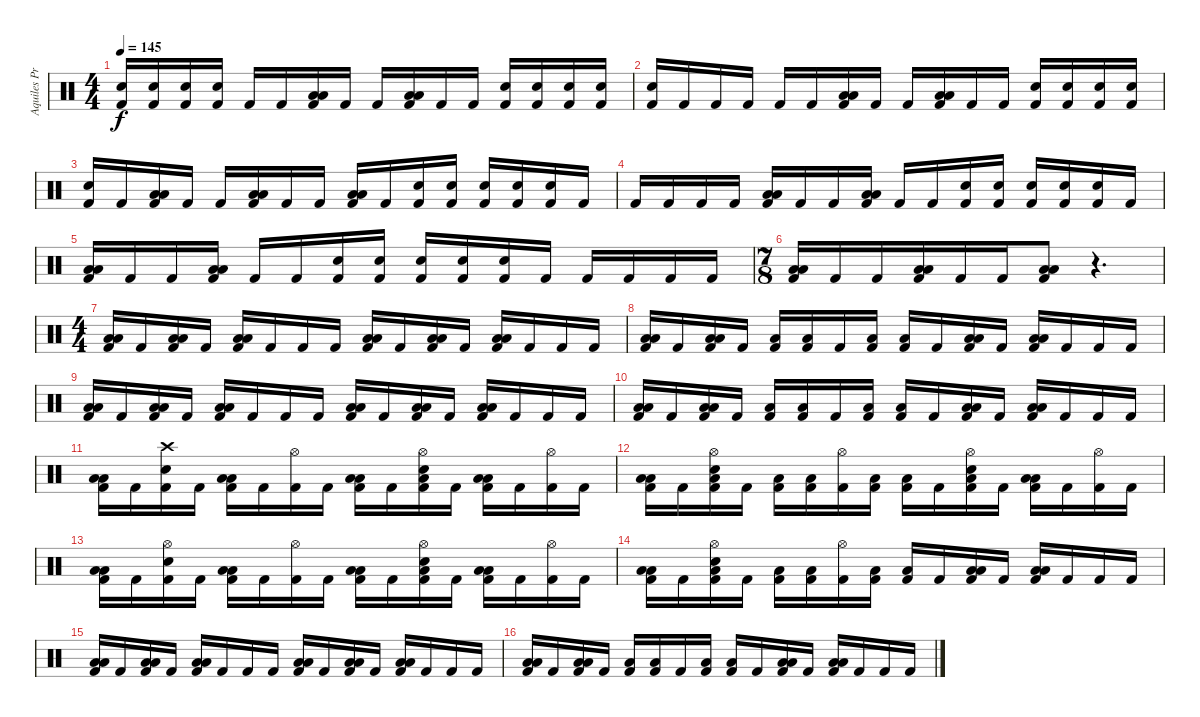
\track ("Aquiles Priester" "Aquiles Pr") {instrument percussion}
\staff {score}
\articulation defaults
\ts (4 4)
\tempo 145
\clef neutral
\ks c
("Electric Snare (hit)" "Kick (hit) 2").16{dy f} ("Electric Snare (hit)" "Kick (hit) 2").16 ("Electric Snare (hit)" "Kick (hit) 2").16 ("Electric Snare (hit)" "Kick (hit) 2").16 "Kick (hit) 2".16 "Kick (hit) 2".16 ("Low Tom (hit)" "Low Floor Tom (hit)" "Kick (hit) 2").16 "Kick (hit) 2".16 "Kick (hit) 2".16 ("Low Tom (hit)" "Low Floor Tom (hit)" "Kick (hit) 2").16 "Kick (hit) 2".16 "Kick (hit) 2".16 ("Electric Snare (hit)" "Kick (hit) 2").16 ("Electric Snare (hit)" "Kick (hit) 2").16 ("Electric Snare (hit)" "Kick (hit) 2").16 ("Electric Snare (hit)" "Kick (hit) 2").16 |
("Electric Snare (hit)" "Kick (hit) 2").16 "Kick (hit) 2".16 "Kick (hit) 2".16 "Kick (hit) 2".16 "Kick (hit) 2".16 "Kick (hit) 2".16 ("Low Tom (hit)" "Low Floor Tom (hit)" "Kick (hit) 2").16 "Kick (hit) 2".16 "Kick (hit) 2".16 ("Low Tom (hit)" "Low Floor Tom (hit)" "Kick (hit) 2").16 "Kick (hit) 2".16 "Kick (hit) 2".16 ("Electric Snare (hit)" "Kick (hit) 2").16 ("Electric Snare (hit)" "Kick (hit) 2").16 ("Electric Snare (hit)" "Kick (hit) 2").16 ("Electric Snare (hit)" "Kick (hit) 2").16 |
("Electric Snare (hit)" "Kick (hit) 2").16 "Kick (hit) 2".16 ("Low Tom (hit)" "Low Floor Tom (hit)" "Kick (hit) 2").16 "Kick (hit) 2".16 "Kick (hit) 2".16 ("Low Tom (hit)" "Low Floor Tom (hit)" "Kick (hit) 2").16 "Kick (hit) 2".16 "Kick (hit) 2".16 ("Low Tom (hit)" "Low Floor Tom (hit)" "Kick (hit) 2").16 "Kick (hit) 2".16 ("Electric Snare (hit)" "Kick (hit) 2").16 ("Electric Snare (hit)" "Kick (hit) 2").16 ("Electric Snare (hit)" "Kick (hit) 2").16 ("Electric Snare (hit)" "Kick (hit) 2").16 ("Electric Snare (hit)" "Kick (hit) 2").16 "Kick (hit) 2".16 |
"Kick (hit) 2".16 "Kick (hit) 2".16 "Kick (hit) 2".16 "Kick (hit) 2".16 ("Low Tom (hit)" "Low Floor Tom (hit)" "Kick (hit) 2").16 "Kick (hit) 2".16 "Kick (hit) 2".16 ("Low Tom (hit)" "Low Floor Tom (hit)" "Kick (hit) 2").16 "Kick (hit) 2".16 "Kick (hit) 2".16 ("Electric Snare (hit)" "Kick (hit) 2").16 ("Electric Snare (hit)" "Kick (hit) 2").16 ("Electric Snare (hit)" "Kick (hit) 2").16 ("Electric Snare (hit)" "Kick (hit) 2").16 ("Electric Snare (hit)" "Kick (hit) 2").16 "Kick (hit) 2".16 |
("Low Tom (hit)" "Low Floor Tom (hit)" "Kick (hit) 2").16 "Kick (hit) 2".16 "Kick (hit) 2".16 ("Low Tom (hit)" "Low Floor Tom (hit)" "Kick (hit) 2").16 "Kick (hit) 2".16 "Kick (hit) 2".16 ("Electric Snare (hit)" "Kick (hit) 2").16 ("Electric Snare (hit)" "Kick (hit) 2").16 ("Electric Snare (hit)" "Kick (hit) 2").16 ("Electric Snare (hit)" "Kick (hit) 2").16 ("Electric Snare (hit)" "Kick (hit) 2").16 "Kick (hit) 2".16 "Kick (hit) 2".16 "Kick (hit) 2".16 "Kick (hit) 2".16 "Kick (hit) 2".16 |
\ts (7 8)
("Low Tom (hit)" "Low Floor Tom (hit)" "Kick (hit) 2").16 "Kick (hit) 2".16 "Kick (hit) 2".16 ("Low Tom (hit)" "Low Floor Tom (hit)" "Kick (hit) 2").16 "Kick (hit) 2".16 "Kick (hit) 2".16 ("Low Tom (hit)" "Low Floor Tom (hit)" "Kick (hit) 2").8 r.4{d} |
\ts (4 4)
("Low Tom (hit)" "Low Floor Tom (hit)" "Kick (hit) 2").16 "Kick (hit) 2".16 ("Low Tom (hit)" "Low Floor Tom (hit)" "Kick (hit) 2").16 "Kick (hit) 2".16 ("Low Tom (hit)" "Low Floor Tom (hit)" "Kick (hit) 2").16 "Kick (hit) 2".16 "Kick (hit) 2".16 "Kick (hit) 2".16 ("Low Tom (hit)" "Low Floor Tom (hit)" "Kick (hit) 2").16 "Kick (hit) 2".16 ("Low Tom (hit)" "Low Floor Tom (hit)" "Kick (hit) 2").16 "Kick (hit) 2".16 ("Low Tom (hit)" "Low Floor Tom (hit)" "Kick (hit) 2").16 "Kick (hit) 2".16 "Kick (hit) 2".16 "Kick (hit) 2".16 |
("Low Tom (hit)" "Low Floor Tom (hit)" "Kick (hit) 2").16 "Kick (hit) 2".16 ("Low Tom (hit)" "Low Floor Tom (hit)" "Kick (hit) 2").16 "Kick (hit) 2".16 ("Low Tom (hit)" "Kick (hit) 2").16 ("Low Floor Tom (hit)" "Kick (hit) 2").16 "Kick (hit) 2".16 ("Low Tom (hit)" "Kick (hit) 2").16 ("Low Floor Tom (hit)" "Kick (hit) 2").16 "Kick (hit) 2".16 ("Low Tom (hit)" "Low Floor Tom (hit)" "Kick (hit) 2").16 "Kick (hit) 2".16 ("Low Tom (hit)" "Low Floor Tom (hit)" "Kick (hit) 2").16 "Kick (hit) 2".16 "Kick (hit) 2".16 "Kick (hit) 2".16 |
("Low Tom (hit)" "Low Floor Tom (hit)" "Kick (hit) 2").16 "Kick (hit) 2".16 ("Low Tom (hit)" "Low Floor Tom (hit)" "Kick (hit) 2").16 "Kick (hit) 2".16 ("Low Tom (hit)" "Low Floor Tom (hit)" "Kick (hit) 2").16 "Kick (hit) 2".16 "Kick (hit) 2".16 "Kick (hit) 2".16 ("Low Tom (hit)" "Low Floor Tom (hit)" "Kick (hit) 2").16 "Kick (hit) 2".16 ("Low Tom (hit)" "Low Floor Tom (hit)" "Kick (hit) 2").16 "Kick (hit) 2".16 ("Low Tom (hit)" "Low Floor Tom (hit)" "Kick (hit) 2").16 "Kick (hit) 2".16 "Kick (hit) 2".16 "Kick (hit) 2".16 |
("Low Tom (hit)" "Low Floor Tom (hit)" "Kick (hit) 2").16 "Kick (hit) 2".16 ("Low Tom (hit)" "Low Floor Tom (hit)" "Kick (hit) 2").16 "Kick (hit) 2".16 ("Low Tom (hit)" "Kick (hit) 2").16 ("Low Floor Tom (hit)" "Kick (hit) 2").16 "Kick (hit) 2".16 ("Low Tom (hit)" "Kick (hit) 2").16 ("Low Floor Tom (hit)" "Kick (hit) 2").16 "Kick (hit) 2".16 ("Low Tom (hit)" "Low Floor Tom (hit)" "Kick (hit) 2").16 "Kick (hit) 2".16 ("Low Tom (hit)" "Low Floor Tom (hit)" "Kick (hit) 2").16 "Kick (hit) 2".16 "Kick (hit) 2".16 "Kick (hit) 2".16 |
("Low Tom (hit)" "Low Floor Tom (hit)" "Kick (hit) 2").16 "Kick (hit) 2".16 ("Crash high (hit)" "Electric Snare (hit)" "Kick (hit) 2").16 "Kick (hit) 2".16 ("Low Tom (hit)" "Low Floor Tom (hit)" "Kick (hit) 2").16 "Kick (hit) 2".16 ("Hi-Hat (open)" "Kick (hit) 2").16 "Kick (hit) 2".16 ("Low Tom (hit)" "Low Floor Tom (hit)" "Kick (hit) 2").16 "Kick (hit) 2".16 ("Hi-Hat (open)" "Electric Snare (hit)" "Low Floor Tom (hit)" "Kick (hit) 2").16 "Kick (hit) 2".16 ("Low Tom (hit)" "Low Floor Tom (hit)" "Kick (hit) 2").16 "Kick (hit) 2".16 ("Hi-Hat (open)" "Kick (hit) 2").16 "Kick (hit) 2".16 |
("Low Tom (hit)" "Low Floor Tom (hit)" "Kick (hit) 2").16 "Kick (hit) 2".16 ("Hi-Hat (open)" "Electric Snare (hit)" "Low Floor Tom (hit)" "Kick (hit) 2").16 "Kick (hit) 2".16 ("Low Tom (hit)" "Kick (hit) 2").16 ("Low Floor Tom (hit)" "Kick (hit) 2").16 ("Hi-Hat (open)" "Kick (hit) 2").16 ("Low Tom (hit)" "Kick (hit) 2").16 ("Low Floor Tom (hit)" "Kick (hit) 2").16 "Kick (hit) 2".16 ("Hi-Hat (open)" "Electric Snare (hit)" "Low Floor Tom (hit)" "Kick (hit) 2").16 "Kick (hit) 2".16 ("Low Tom (hit)" "Low Floor Tom (hit)" "Kick (hit) 2").16 "Kick (hit) 2".16 ("Hi-Hat (open)" "Kick (hit) 2").16 "Kick (hit) 2".16 |
("Low Tom (hit)" "Low Floor Tom (hit)" "Kick (hit) 2").16 "Kick (hit) 2".16 ("Hi-Hat (open)" "Electric Snare (hit)" "Kick (hit) 2").16 "Kick (hit) 2".16 ("Low Tom (hit)" "Low Floor Tom (hit)" "Kick (hit) 2").16 "Kick (hit) 2".16 ("Hi-Hat (open)" "Kick (hit) 2").16 "Kick (hit) 2".16 ("Low Tom (hit)" "Low Floor Tom (hit)" "Kick (hit) 2").16 "Kick (hit) 2".16 ("Hi-Hat (open)" "Electric Snare (hit)" "Low Floor Tom (hit)" "Kick (hit) 2").16 "Kick (hit) 2".16 ("Low Tom (hit)" "Low Floor Tom (hit)" "Kick (hit) 2").16 "Kick (hit) 2".16 ("Hi-Hat (open)" "Kick (hit) 2").16 "Kick (hit) 2".16 |
("Low Tom (hit)" "Low Floor Tom (hit)" "Kick (hit) 2").16 "Kick (hit) 2".16 ("Hi-Hat (open)" "Electric Snare (hit)" "Low Floor Tom (hit)" "Kick (hit) 2").16 "Kick (hit) 2".16 ("Low Tom (hit)" "Kick (hit) 2").16 ("Low Floor Tom (hit)" "Kick (hit) 2").16 ("Hi-Hat (open)" "Kick (hit) 2").16 ("Low Tom (hit)" "Kick (hit) 2").16 ("Low Floor Tom (hit)" "Kick (hit) 2").16 "Kick (hit) 2".16 ("Low Tom (hit)" "Low Floor Tom (hit)" "Kick (hit) 2").16 "Kick (hit) 2".16 ("Low Tom (hit)" "Low Floor Tom (hit)" "Kick (hit) 2").16 "Kick (hit) 2".16 "Kick (hit) 2".16 "Kick (hit) 2".16 |
("Low Tom (hit)" "Low Floor Tom (hit)" "Kick (hit) 2").16 "Kick (hit) 2".16 ("Low Tom (hit)" "Low Floor Tom (hit)" "Kick (hit) 2").16 "Kick (hit) 2".16 ("Low Tom (hit)" "Low Floor Tom (hit)" "Kick (hit) 2").16 "Kick (hit) 2".16 "Kick (hit) 2".16 "Kick (hit) 2".16 ("Low Tom (hit)" "Low Floor Tom (hit)" "Kick (hit) 2").16 "Kick (hit) 2".16 ("Low Tom (hit)" "Low Floor Tom (hit)" "Kick (hit) 2").16 "Kick (hit) 2".16 ("Low Tom (hit)" "Low Floor Tom (hit)" "Kick (hit) 2").16 "Kick (hit) 2".16 "Kick (hit) 2".16 "Kick (hit) 2".16 |
("Low Tom (hit)" "Low Floor Tom (hit)" "Kick (hit) 2").16 "Kick (hit) 2".16 ("Low Tom (hit)" "Low Floor Tom (hit)" "Kick (hit) 2").16 "Kick (hit) 2".16 ("Low Tom (hit)" "Kick (hit) 2").16 ("Low Floor Tom (hit)" "Kick (hit) 2").16 "Kick (hit) 2".16 ("Low Tom (hit)" "Kick (hit) 2").16 ("Low Floor Tom (hit)" "Kick (hit) 2").16 "Kick (hit) 2".16 ("Low Tom (hit)" "Low Floor Tom (hit)" "Kick (hit) 2").16 "Kick (hit) 2".16 ("Low Tom (hit)" "Low Floor Tom (hit)" "Kick (hit) 2").16 "Kick (hit) 2".16 "Kick (hit) 2".16 "Kick (hit) 2".16
